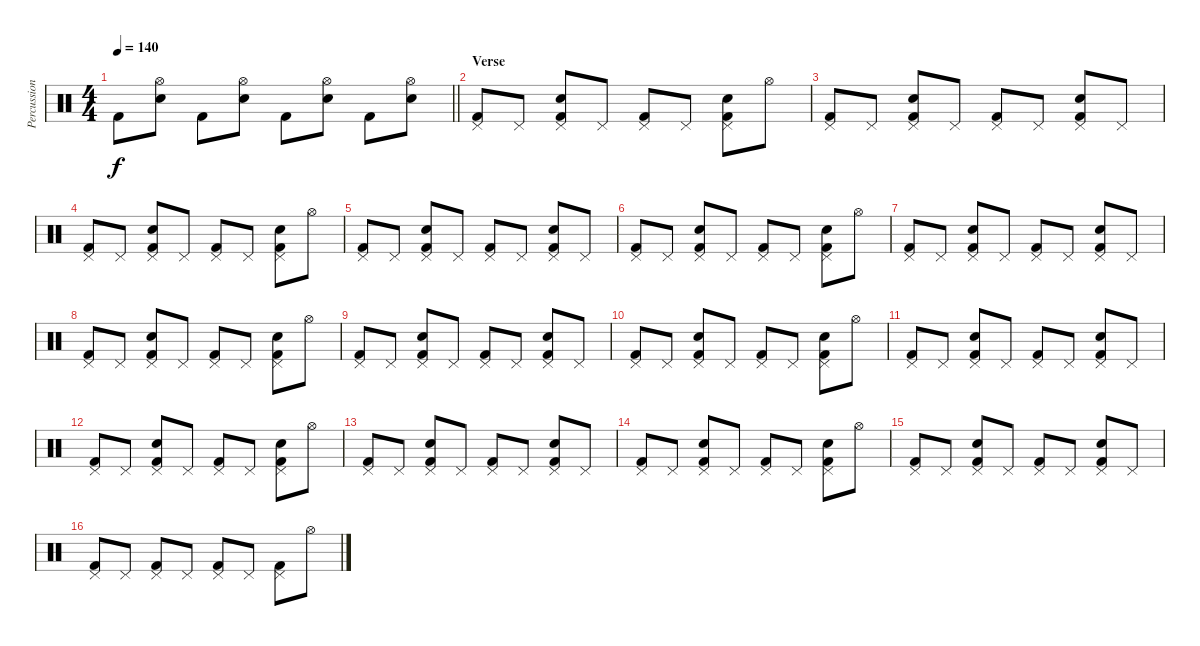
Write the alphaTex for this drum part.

\track ("Percussion" "Percussion") {instrument percussion}
\staff {score}
\articulation defaults
\ts (4 4)
\tempo 140
\clef neutral
\barLineRight lightlight
\ks c "Kick (hit) 2".8{dy f}
("Hi-Hat (open)" "Hand Clap (hit)").8 "Kick (hit) 2".8 ("Hi-Hat (open)" "Hand Clap (hit)").8 "Kick (hit) 2".8 ("Hi-Hat (open)" "Hand Clap (hit)").8 "Kick (hit) 2".8 ("Hi-Hat (open)" "Hand Clap (hit)").8 |
\section ("" "Verse")
("Pedal Hi-Hat (hit)" "Kick (hit) 2").8 "Pedal Hi-Hat (hit)".8 ("Pedal Hi-Hat (hit)" "Hand Clap (hit)" "Kick (hit) 2").8 "Pedal Hi-Hat (hit)".8 ("Pedal Hi-Hat (hit)" "Kick (hit) 2").8 "Pedal Hi-Hat (hit)".8 ("Pedal Hi-Hat (hit)" "Hand Clap (hit)" "Kick (hit) 2").8 "Hi-Hat (open)".8 |
("Pedal Hi-Hat (hit)" "Kick (hit) 2").8 "Pedal Hi-Hat (hit)".8 ("Pedal Hi-Hat (hit)" "Hand Clap (hit)" "Kick (hit) 2").8 "Pedal Hi-Hat (hit)".8 ("Pedal Hi-Hat (hit)" "Kick (hit) 2").8 "Pedal Hi-Hat (hit)".8 ("Pedal Hi-Hat (hit)" "Hand Clap (hit)" "Kick (hit) 2").8 "Pedal Hi-Hat (hit)".8 |
("Pedal Hi-Hat (hit)" "Kick (hit) 2").8 "Pedal Hi-Hat (hit)".8 ("Pedal Hi-Hat (hit)" "Hand Clap (hit)" "Kick (hit) 2").8 "Pedal Hi-Hat (hit)".8 ("Pedal Hi-Hat (hit)" "Kick (hit) 2").8 "Pedal Hi-Hat (hit)".8 ("Pedal Hi-Hat (hit)" "Hand Clap (hit)" "Kick (hit) 2").8 "Hi-Hat (open)".8 |
("Pedal Hi-Hat (hit)" "Kick (hit) 2").8 "Pedal Hi-Hat (hit)".8 ("Pedal Hi-Hat (hit)" "Hand Clap (hit)" "Kick (hit) 2").8 "Pedal Hi-Hat (hit)".8 ("Pedal Hi-Hat (hit)" "Kick (hit) 2").8 "Pedal Hi-Hat (hit)".8 ("Pedal Hi-Hat (hit)" "Hand Clap (hit)" "Kick (hit) 2").8 "Pedal Hi-Hat (hit)".8 |
("Pedal Hi-Hat (hit)" "Kick (hit) 2").8 "Pedal Hi-Hat (hit)".8 ("Pedal Hi-Hat (hit)" "Hand Clap (hit)" "Kick (hit) 2").8 "Pedal Hi-Hat (hit)".8 ("Pedal Hi-Hat (hit)" "Kick (hit) 2").8 "Pedal Hi-Hat (hit)".8 ("Pedal Hi-Hat (hit)" "Hand Clap (hit)" "Kick (hit) 2").8 "Hi-Hat (open)".8 |
("Pedal Hi-Hat (hit)" "Kick (hit) 2").8 "Pedal Hi-Hat (hit)".8 ("Pedal Hi-Hat (hit)" "Hand Clap (hit)" "Kick (hit) 2").8 "Pedal Hi-Hat (hit)".8 ("Pedal Hi-Hat (hit)" "Kick (hit) 2").8 "Pedal Hi-Hat (hit)".8 ("Pedal Hi-Hat (hit)" "Hand Clap (hit)" "Kick (hit) 2").8 "Pedal Hi-Hat (hit)".8 |
("Pedal Hi-Hat (hit)" "Kick (hit) 2").8 "Pedal Hi-Hat (hit)".8 ("Pedal Hi-Hat (hit)" "Hand Clap (hit)" "Kick (hit) 2").8 "Pedal Hi-Hat (hit)".8 ("Pedal Hi-Hat (hit)" "Kick (hit) 2").8 "Pedal Hi-Hat (hit)".8 ("Pedal Hi-Hat (hit)" "Hand Clap (hit)" "Kick (hit) 2").8 "Hi-Hat (open)".8 |
("Pedal Hi-Hat (hit)" "Kick (hit) 2").8 "Pedal Hi-Hat (hit)".8 ("Pedal Hi-Hat (hit)" "Hand Clap (hit)" "Kick (hit) 2").8 "Pedal Hi-Hat (hit)".8 ("Pedal Hi-Hat (hit)" "Kick (hit) 2").8 "Pedal Hi-Hat (hit)".8 ("Pedal Hi-Hat (hit)" "Hand Clap (hit)" "Kick (hit) 2").8 "Pedal Hi-Hat (hit)".8 |
("Pedal Hi-Hat (hit)" "Kick (hit) 2").8 "Pedal Hi-Hat (hit)".8 ("Pedal Hi-Hat (hit)" "Hand Clap (hit)" "Kick (hit) 2").8 "Pedal Hi-Hat (hit)".8 ("Pedal Hi-Hat (hit)" "Kick (hit) 2").8 "Pedal Hi-Hat (hit)".8 ("Pedal Hi-Hat (hit)" "Hand Clap (hit)" "Kick (hit) 2").8 "Hi-Hat (open)".8 |
("Pedal Hi-Hat (hit)" "Kick (hit) 2").8 "Pedal Hi-Hat (hit)".8 ("Pedal Hi-Hat (hit)" "Hand Clap (hit)" "Kick (hit) 2").8 "Pedal Hi-Hat (hit)".8 ("Pedal Hi-Hat (hit)" "Kick (hit) 2").8 "Pedal Hi-Hat (hit)".8 ("Pedal Hi-Hat (hit)" "Hand Clap (hit)" "Kick (hit) 2").8 "Pedal Hi-Hat (hit)".8 |
("Pedal Hi-Hat (hit)" "Kick (hit) 2").8 "Pedal Hi-Hat (hit)".8 ("Pedal Hi-Hat (hit)" "Hand Clap (hit)" "Kick (hit) 2").8 "Pedal Hi-Hat (hit)".8 ("Pedal Hi-Hat (hit)" "Kick (hit) 2").8 "Pedal Hi-Hat (hit)".8 ("Pedal Hi-Hat (hit)" "Hand Clap (hit)" "Kick (hit) 2").8 "Hi-Hat (open)".8 |
("Pedal Hi-Hat (hit)" "Kick (hit) 2").8 "Pedal Hi-Hat (hit)".8 ("Pedal Hi-Hat (hit)" "Hand Clap (hit)" "Kick (hit) 2").8 "Pedal Hi-Hat (hit)".8 ("Pedal Hi-Hat (hit)" "Kick (hit) 2").8 "Pedal Hi-Hat (hit)".8 ("Pedal Hi-Hat (hit)" "Hand Clap (hit)" "Kick (hit) 2").8 "Pedal Hi-Hat (hit)".8 |
("Pedal Hi-Hat (hit)" "Kick (hit) 2").8 "Pedal Hi-Hat (hit)".8 ("Pedal Hi-Hat (hit)" "Hand Clap (hit)" "Kick (hit) 2").8 "Pedal Hi-Hat (hit)".8 ("Pedal Hi-Hat (hit)" "Kick (hit) 2").8 "Pedal Hi-Hat (hit)".8 ("Pedal Hi-Hat (hit)" "Hand Clap (hit)" "Kick (hit) 2").8 "Hi-Hat (open)".8 |
("Pedal Hi-Hat (hit)" "Kick (hit) 2").8 "Pedal Hi-Hat (hit)".8 ("Pedal Hi-Hat (hit)" "Hand Clap (hit)" "Kick (hit) 2").8 "Pedal Hi-Hat (hit)".8 ("Pedal Hi-Hat (hit)" "Kick (hit) 2").8 "Pedal Hi-Hat (hit)".8 ("Pedal Hi-Hat (hit)" "Hand Clap (hit)" "Kick (hit) 2").8 "Pedal Hi-Hat (hit)".8 |
("Pedal Hi-Hat (hit)" "Kick (hit) 2").8 "Pedal Hi-Hat (hit)".8 ("Pedal Hi-Hat (hit)" "Kick (hit) 2").8 "Pedal Hi-Hat (hit)".8 ("Pedal Hi-Hat (hit)" "Kick (hit) 2").8 "Pedal Hi-Hat (hit)".8 ("Pedal Hi-Hat (hit)" "Kick (hit) 2").8 "Hi-Hat (open)".8
